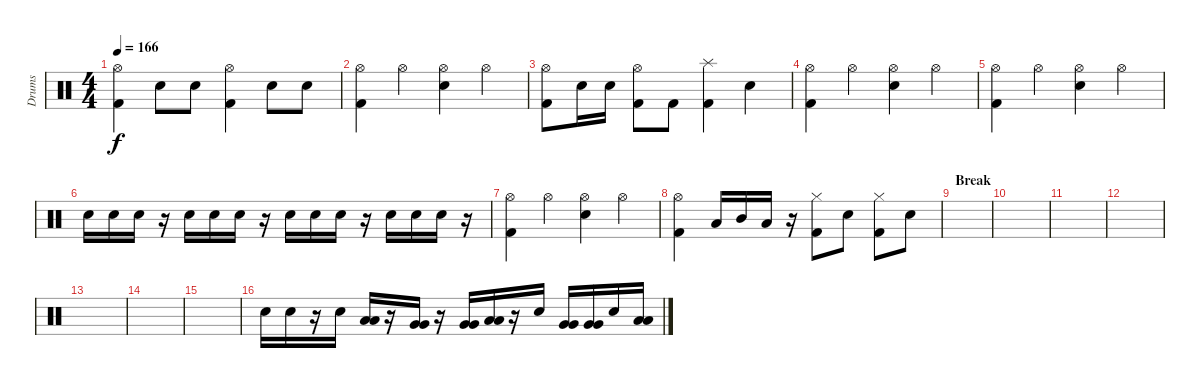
\track ("Drums" "Drums") {instrument percussion}
\staff {score}
\articulation defaults
\ts (4 4)
\tempo 166
\clef neutral
\ks c
("Hi-Hat (open)" "Kick (hit) 2").4{dy f} "Snare (hit) 2".8 "Electric Snare (hit)".8 ("Hi-Hat (open)" "Kick (hit) 2").4 "Electric Snare (hit)".8 "Snare (hit) 2".8 |
("Hi-Hat (open)" "Kick (hit) 2").4 "Hi-Hat (open)".4 ("Hi-Hat (open)" "Electric Snare (hit)").4 "Hi-Hat (open)".4 |
("Hi-Hat (open)" "Kick (hit) 2").8 "Snare (hit) 2".16 "Electric Snare (hit)".16 ("Hi-Hat (open)" "Kick (hit) 2").8 "Kick (hit) 2".8 ("Splash (hit)" "Kick (hit) 2").4 "Electric Snare (hit)".4 |
("Hi-Hat (open)" "Kick (hit) 2").4 "Hi-Hat (open)".4 ("Electric Snare (hit)" "Hi-Hat (open)").4 "Hi-Hat (open)".4 |
("Hi-Hat (open)" "Kick (hit) 2").4 "Hi-Hat (open)".4 ("Electric Snare (hit)" "Hi-Hat (open)").4 "Hi-Hat (open)".4 |
"Electric Snare (hit)".16 "Electric Snare (hit)".16 "Electric Snare (hit)".16 r.16 "Snare (hit) 2".16 "Snare (hit) 2".16 "Snare (hit) 2".16 r.16 "Snare (hit) 2".16 "Snare (hit) 2".16 "Snare (hit) 2".16 r.16 "Electric Snare (hit)".16 "Electric Snare (hit)".16 "Electric Snare (hit)".16 r.16 |
("Hi-Hat (open)" "Kick (hit) 2").4 "Hi-Hat (open)".4 ("Electric Snare (hit)" "Hi-Hat (open)").4 "Hi-Hat (open)".4 |
("Hi-Hat (open)" "Kick (hit) 2").4 "Low Tom (hit)".16 "Mid Tom (hit)".16 "Low Tom (hit)".16 r.16 ("Hi-Hat (closed)" "Kick (hit) 2").8 "Electric Snare (hit)".8 ("Hi-Hat (closed)" "Kick (hit) 2").8 "Electric Snare (hit)".8 |
\section ("" "Break")
|
|
|
|
|
|
|
"Snare (hit) 2".16 "Snare (hit) 2".16 r.16 "Snare (hit) 2".16 ("Low Floor Tom (hit)" "Low Floor Tom (hit)").16 r.16 ("Very Low Tom (hit)" "Very Low Tom (hit)").16 r.16 ("Very Low Tom (hit)" "Very Low Tom (hit)").16 ("Low Floor Tom (hit)" "Low Floor Tom (hit)").16 r.16 "Electric Snare (hit)".16 ("Very Low Tom (hit)" "Very Low Tom (hit)").16 ("Very Low Tom (hit)" "Very Low Tom (hit)").16 "Electric Snare (hit)".16 ("Low Floor Tom (hit)" "Low Floor Tom (hit)").16
